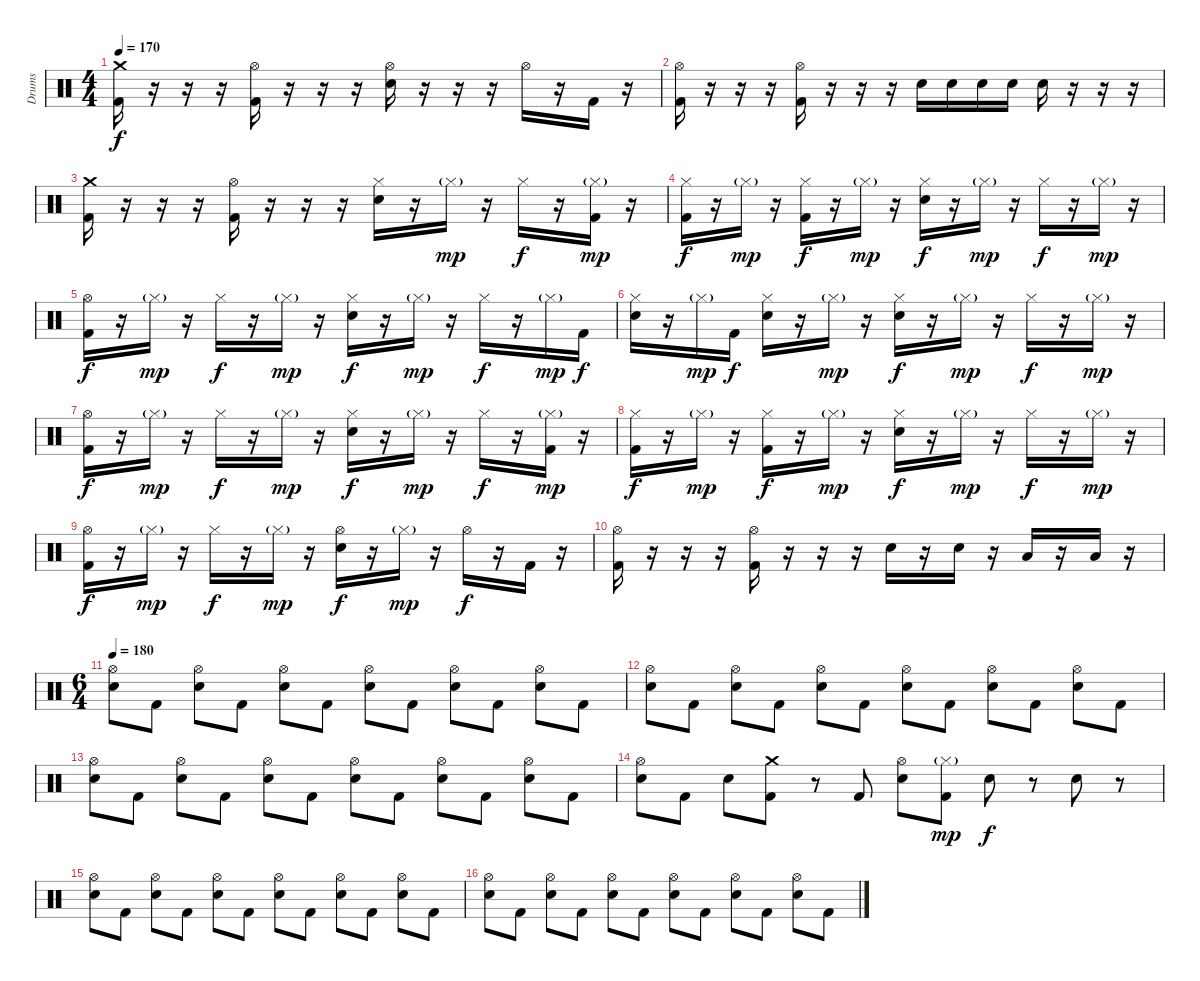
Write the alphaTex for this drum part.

\track ("Drums" "Drums") {instrument percussion}
\staff {score}
\articulation defaults
\ts (4 4)
\tempo 170
\clef neutral
\ks c
("Kick (hit) 2" "Crash medium (hit)").16{dy f} r.16 r.16 r.16 ("Kick (hit) 2" "Hi-Hat (open)").16 r.16 r.16 r.16 ("Electric Snare (hit)" "Hi-Hat (open)").16 r.16 r.16 r.16 "Hi-Hat (open)".16 r.16 "Kick (hit) 2".16 r.16 |
("Kick (hit) 2" "Hi-Hat (open)").16 r.16 r.16 r.16 ("Kick (hit) 2" "Hi-Hat (open)").16 r.16 r.16 r.16 "Electric Snare (hit)".16 "Electric Snare (hit)".16 "Electric Snare (hit)".16 "Electric Snare (hit)".16 "Electric Snare (hit)".16 r.16 r.16 r.16 |
("Kick (hit) 2" "Crash medium (hit)").16 r.16 r.16 r.16 ("Kick (hit) 2" "Hi-Hat (open)").16 r.16 r.16 r.16 ("Electric Snare (hit)" "Hi-Hat (closed)").16 r.16 "Hi-Hat (closed)"{g}.16{dy mp} r.16 "Hi-Hat (closed)".16{dy f} r.16 ("Kick (hit) 2" "Hi-Hat (closed)"{g}).16{dy mp} r.16 |
("Kick (hit) 2" "Hi-Hat (closed)").16{dy f} r.16 "Hi-Hat (closed)"{g}.16{dy mp} r.16 ("Kick (hit) 2" "Hi-Hat (closed)").16{dy f} r.16 "Hi-Hat (closed)"{g}.16{dy mp} r.16 ("Electric Snare (hit)" "Hi-Hat (closed)").16{dy f} r.16 "Hi-Hat (closed)"{g}.16{dy mp} r.16 "Hi-Hat (closed)".16{dy f} r.16 "Hi-Hat (closed)"{g}.16{dy mp} r.16 |
("Kick (hit) 2" "Hi-Hat (open)").16{dy f} r.16 "Hi-Hat (closed)"{g}.16{dy mp} r.16 "Hi-Hat (closed)".16{dy f} r.16 "Hi-Hat (closed)"{g}.16{dy mp} r.16 ("Electric Snare (hit)" "Hi-Hat (closed)").16{dy f} r.16 "Hi-Hat (closed)"{g}.16{dy mp} r.16 "Hi-Hat (closed)".16{dy f} r.16 "Hi-Hat (closed)"{g}.16{dy mp} "Kick (hit) 2".16{dy f} |
("Electric Snare (hit)" "Hi-Hat (closed)").16 r.16 "Hi-Hat (closed)"{g}.16{dy mp} "Kick (hit) 2".16{dy f} ("Electric Snare (hit)" "Hi-Hat (closed)").16 r.16 "Hi-Hat (closed)"{g}.16{dy mp} r.16 ("Electric Snare (hit)" "Hi-Hat (closed)").16{dy f} r.16 "Hi-Hat (closed)"{g}.16{dy mp} r.16 "Hi-Hat (closed)".16{dy f} r.16 "Hi-Hat (closed)"{g}.16{dy mp} r.16 |
("Kick (hit) 2" "Hi-Hat (open)").16{dy f} r.16 "Hi-Hat (closed)"{g}.16{dy mp} r.16 "Hi-Hat (closed)".16{dy f} r.16 "Hi-Hat (closed)"{g}.16{dy mp} r.16 ("Electric Snare (hit)" "Hi-Hat (closed)").16{dy f} r.16 "Hi-Hat (closed)"{g}.16{dy mp} r.16 "Hi-Hat (closed)".16{dy f} r.16 ("Kick (hit) 2" "Hi-Hat (closed)"{g}).16{dy mp} r.16 |
("Kick (hit) 2" "Hi-Hat (closed)").16{dy f} r.16 "Hi-Hat (closed)"{g}.16{dy mp} r.16 ("Kick (hit) 2" "Hi-Hat (closed)").16{dy f} r.16 "Hi-Hat (closed)"{g}.16{dy mp} r.16 ("Electric Snare (hit)" "Hi-Hat (closed)").16{dy f} r.16 "Hi-Hat (closed)"{g}.16{dy mp} r.16 "Hi-Hat (closed)".16{dy f} r.16 "Hi-Hat (closed)"{g}.16{dy mp} r.16 |
("Kick (hit) 2" "Hi-Hat (open)").16{dy f} r.16 "Hi-Hat (closed)"{g}.16{dy mp} r.16 "Hi-Hat (closed)".16{dy f} r.16 "Hi-Hat (closed)"{g}.16{dy mp} r.16 ("Electric Snare (hit)" "Hi-Hat (open)").16{dy f} r.16 "Hi-Hat (closed)"{g}.16{dy mp} r.16 "Hi-Hat (open)".16{dy f} r.16 "Kick (hit) 2".16 r.16 |
("Kick (hit) 2" "Hi-Hat (open)").16 r.16 r.16 r.16 ("Kick (hit) 2" "Hi-Hat (open)").16 r.16 r.16 r.16 "Electric Snare (hit)".16 r.16 "Electric Snare (hit)".16 r.16 "Low Tom (hit)".16 r.16 "Low Tom (hit)".16 r.16 |
\ts (6 4)
\tempo 180
("Electric Snare (hit)" "Hi-Hat (open)").8 "Kick (hit) 2".8 ("Electric Snare (hit)" "Hi-Hat (open)").8 "Kick (hit) 2".8 ("Electric Snare (hit)" "Hi-Hat (open)").8 "Kick (hit) 2".8 ("Electric Snare (hit)" "Hi-Hat (open)").8 "Kick (hit) 2".8 ("Electric Snare (hit)" "Hi-Hat (open)").8 "Kick (hit) 2".8 ("Electric Snare (hit)" "Hi-Hat (open)").8 "Kick (hit) 2".8 |
("Electric Snare (hit)" "Hi-Hat (open)").8 "Kick (hit) 2".8 ("Electric Snare (hit)" "Hi-Hat (open)").8 "Kick (hit) 2".8 ("Electric Snare (hit)" "Hi-Hat (open)").8 "Kick (hit) 2".8 ("Electric Snare (hit)" "Hi-Hat (open)").8 "Kick (hit) 2".8 ("Electric Snare (hit)" "Hi-Hat (open)").8 "Kick (hit) 2".8 ("Electric Snare (hit)" "Hi-Hat (open)").8 "Kick (hit) 2".8 |
("Electric Snare (hit)" "Hi-Hat (open)").8 "Kick (hit) 2".8 ("Electric Snare (hit)" "Hi-Hat (open)").8 "Kick (hit) 2".8 ("Electric Snare (hit)" "Hi-Hat (open)").8 "Kick (hit) 2".8 ("Electric Snare (hit)" "Hi-Hat (open)").8 "Kick (hit) 2".8 ("Electric Snare (hit)" "Hi-Hat (open)").8 "Kick (hit) 2".8 ("Electric Snare (hit)" "Hi-Hat (open)").8 "Kick (hit) 2".8 |
("Electric Snare (hit)" "Hi-Hat (open)").8 "Kick (hit) 2".8 "Electric Snare (hit)".8 ("Kick (hit) 2" "Crash medium (hit)").8 r.8 "Kick (hit) 2".8 ("Electric Snare (hit)" "Hi-Hat (open)").8 ("Kick (hit) 2" "Hi-Hat (closed)"{g}).8{dy mp} "Electric Snare (hit)".8{dy f} r.8 "Electric Snare (hit)".8 r.8 |
("Electric Snare (hit)" "Hi-Hat (open)").8 "Kick (hit) 2".8 ("Electric Snare (hit)" "Hi-Hat (open)").8 "Kick (hit) 2".8 ("Electric Snare (hit)" "Hi-Hat (open)").8 "Kick (hit) 2".8 ("Electric Snare (hit)" "Hi-Hat (open)").8 "Kick (hit) 2".8 ("Electric Snare (hit)" "Hi-Hat (open)").8 "Kick (hit) 2".8 ("Electric Snare (hit)" "Hi-Hat (open)").8 "Kick (hit) 2".8 |
("Electric Snare (hit)" "Hi-Hat (open)").8 "Kick (hit) 2".8 ("Electric Snare (hit)" "Hi-Hat (open)").8 "Kick (hit) 2".8 ("Electric Snare (hit)" "Hi-Hat (open)").8 "Kick (hit) 2".8 ("Electric Snare (hit)" "Hi-Hat (open)").8 "Kick (hit) 2".8 ("Electric Snare (hit)" "Hi-Hat (open)").8 "Kick (hit) 2".8 ("Electric Snare (hit)" "Hi-Hat (open)").8 "Kick (hit) 2".8
